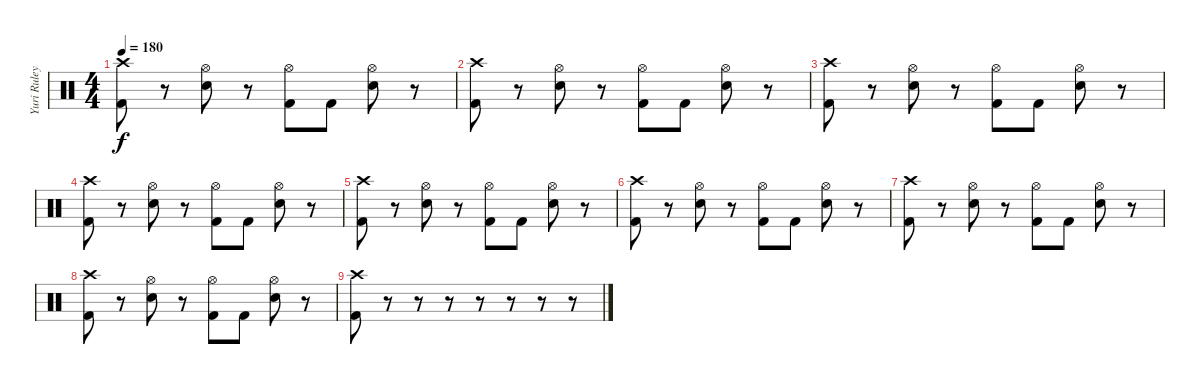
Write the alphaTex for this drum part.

\track ("Yuri Ruley [Drums]" "Yuri Ruley") {instrument percussion}
\staff {score}
\articulation defaults
\ts (4 4)
\tempo 180
\clef neutral
\ks c
("Crash high (hit)" "Kick (hit) 2").8{dy f} r.8 ("Hi-Hat (open)" "Snare (hit) 2").8 r.8 ("Hi-Hat (open)" "Kick (hit) 2").8 "Kick (hit) 2".8 ("Hi-Hat (open)" "Snare (hit) 2").8 r.8 |
("Crash high (hit)" "Kick (hit) 2").8 r.8 ("Hi-Hat (open)" "Snare (hit) 2").8 r.8 ("Hi-Hat (open)" "Kick (hit) 2").8 "Kick (hit) 2".8 ("Hi-Hat (open)" "Snare (hit) 2").8 r.8 |
("Crash high (hit)" "Kick (hit) 2").8 r.8 ("Hi-Hat (open)" "Snare (hit) 2").8 r.8 ("Hi-Hat (open)" "Kick (hit) 2").8 "Kick (hit) 2".8 ("Hi-Hat (open)" "Snare (hit) 2").8 r.8 |
("Crash high (hit)" "Kick (hit) 2").8 r.8 ("Hi-Hat (open)" "Snare (hit) 2").8 r.8 ("Hi-Hat (open)" "Kick (hit) 2").8 "Kick (hit) 2".8 ("Hi-Hat (open)" "Snare (hit) 2").8 r.8 |
("Crash high (hit)" "Kick (hit) 2").8 r.8 ("Hi-Hat (open)" "Snare (hit) 2").8 r.8 ("Hi-Hat (open)" "Kick (hit) 2").8 "Kick (hit) 2".8 ("Hi-Hat (open)" "Snare (hit) 2").8 r.8 |
("Crash high (hit)" "Kick (hit) 2").8 r.8 ("Hi-Hat (open)" "Snare (hit) 2").8 r.8 ("Hi-Hat (open)" "Kick (hit) 2").8 "Kick (hit) 2".8 ("Hi-Hat (open)" "Snare (hit) 2").8 r.8 |
("Crash high (hit)" "Kick (hit) 2").8 r.8 ("Hi-Hat (open)" "Snare (hit) 2").8 r.8 ("Hi-Hat (open)" "Kick (hit) 2").8 "Kick (hit) 2".8 ("Hi-Hat (open)" "Snare (hit) 2").8 r.8 |
("Crash high (hit)" "Kick (hit) 2").8 r.8 ("Hi-Hat (open)" "Snare (hit) 2").8 r.8 ("Hi-Hat (open)" "Kick (hit) 2").8 "Kick (hit) 2".8 ("Hi-Hat (open)" "Snare (hit) 2").8 r.8 |
("Crash high (hit)" "Kick (hit) 2").8 r.8 r.8 r.8 r.8 r.8 r.8 r.8
